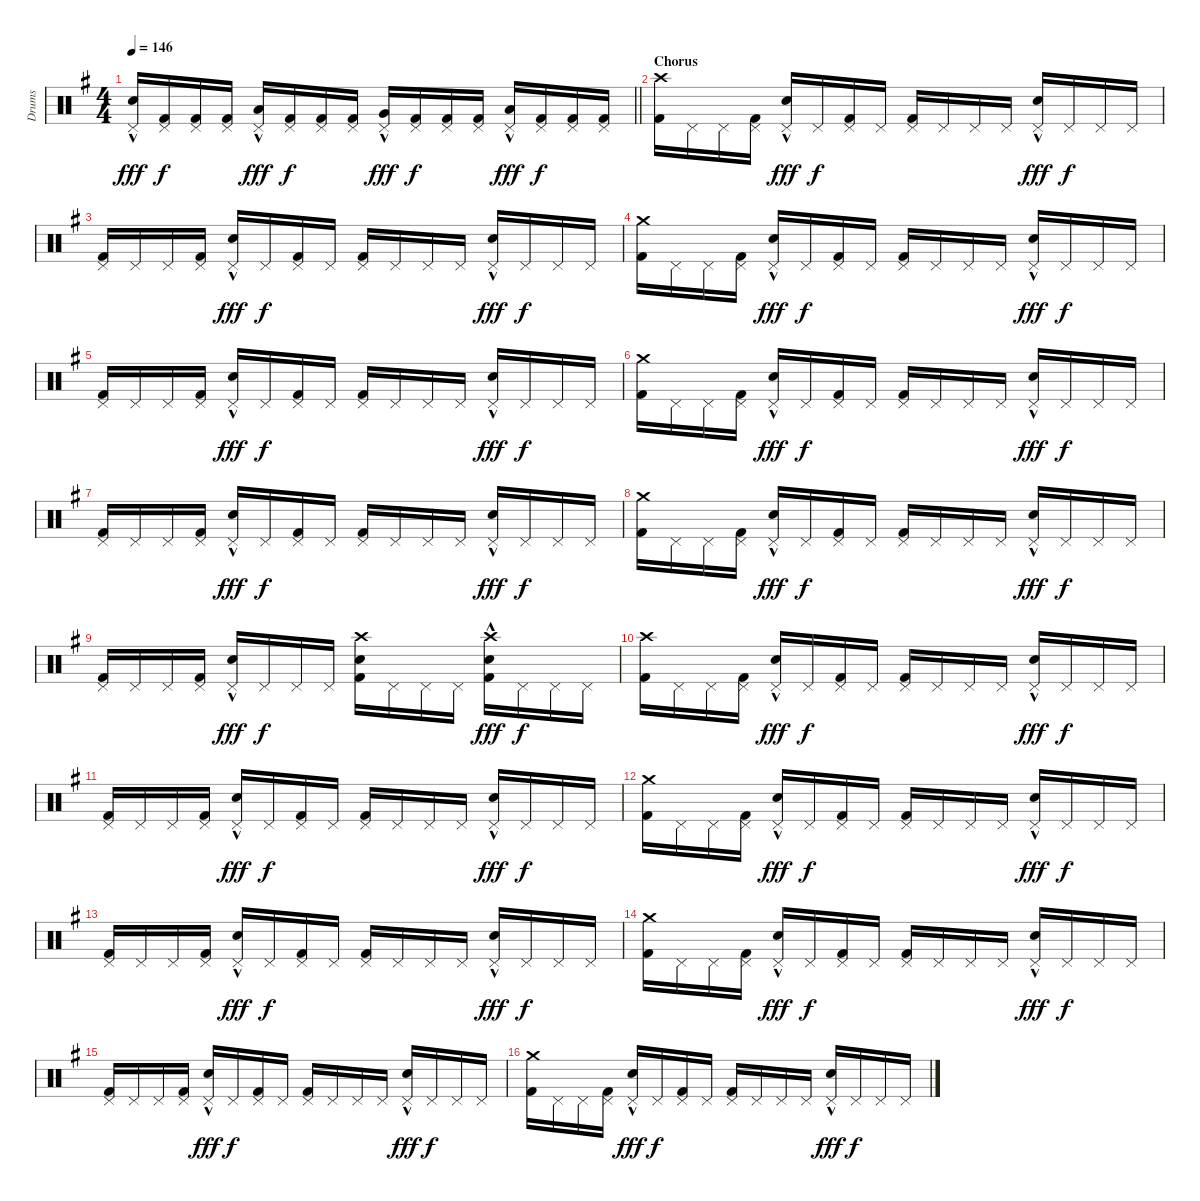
\track ("Drums" "Drums") {instrument percussion}
\staff {score}
\articulation defaults
\ts (4 4)
\tempo 146
\clef neutral
\barLineRight lightlight
\ks eminor
("Pedal Hi-Hat (hit)"{hac} "Snare (hit) 2").16{dy fff} ("Pedal Hi-Hat (hit)" "Kick (hit) 2").16{dy f} ("Pedal Hi-Hat (hit)" "Kick (hit) 2").16 ("Pedal Hi-Hat (hit)" "Kick (hit) 2").16 ("Pedal Hi-Hat (hit)"{hac} "Low Tom (hit)"{hac}).16{dy fff} ("Pedal Hi-Hat (hit)" "Kick (hit) 2").16{dy f} ("Pedal Hi-Hat (hit)" "Kick (hit) 2").16 ("Pedal Hi-Hat (hit)" "Kick (hit) 2").16 ("Pedal Hi-Hat (hit)"{hac} "Very Low Tom (hit)"{hac}).16{dy fff} ("Pedal Hi-Hat (hit)" "Kick (hit) 2").16{dy f} ("Pedal Hi-Hat (hit)" "Kick (hit) 2").16 ("Pedal Hi-Hat (hit)" "Kick (hit) 2").16 ("Pedal Hi-Hat (hit)"{hac} "Low Floor Tom (hit)"{hac}).16{dy fff} ("Pedal Hi-Hat (hit)" "Kick (hit) 2").16{dy f} ("Pedal Hi-Hat (hit)" "Kick (hit) 2").16 ("Pedal Hi-Hat (hit)" "Kick (hit) 2").16 |
\section ("" "Chorus")
("Crash high (hit)" "Kick (hit) 2").16 "Pedal Hi-Hat (hit)".16 "Pedal Hi-Hat (hit)".16 ("Pedal Hi-Hat (hit)" "Kick (hit) 2").16 ("Pedal Hi-Hat (hit)"{hac} "Snare (hit) 2").16{dy fff} "Pedal Hi-Hat (hit)".16{dy f} ("Pedal Hi-Hat (hit)" "Kick (hit) 2").16 "Pedal Hi-Hat (hit)".16 ("Pedal Hi-Hat (hit)" "Kick (hit) 2").16 "Pedal Hi-Hat (hit)".16 "Pedal Hi-Hat (hit)".16 "Pedal Hi-Hat (hit)".16 ("Pedal Hi-Hat (hit)"{hac} "Snare (hit) 2").16{dy fff} "Pedal Hi-Hat (hit)".16{dy f} "Pedal Hi-Hat (hit)".16 "Pedal Hi-Hat (hit)".16 |
("Pedal Hi-Hat (hit)" "Kick (hit) 2").16 "Pedal Hi-Hat (hit)".16 "Pedal Hi-Hat (hit)".16 ("Pedal Hi-Hat (hit)" "Kick (hit) 2").16 ("Pedal Hi-Hat (hit)"{hac} "Snare (hit) 2").16{dy fff} "Pedal Hi-Hat (hit)".16{dy f} ("Pedal Hi-Hat (hit)" "Kick (hit) 2").16 "Pedal Hi-Hat (hit)".16 ("Pedal Hi-Hat (hit)" "Kick (hit) 2").16 "Pedal Hi-Hat (hit)".16 "Pedal Hi-Hat (hit)".16 "Pedal Hi-Hat (hit)".16 ("Pedal Hi-Hat (hit)"{hac} "Snare (hit) 2").16{dy fff} "Pedal Hi-Hat (hit)".16{dy f} "Pedal Hi-Hat (hit)".16 "Pedal Hi-Hat (hit)".16 |
("Crash medium (hit)" "Kick (hit) 2").16 "Pedal Hi-Hat (hit)".16 "Pedal Hi-Hat (hit)".16 ("Pedal Hi-Hat (hit)" "Kick (hit) 2").16 ("Pedal Hi-Hat (hit)"{hac} "Snare (hit) 2").16{dy fff} "Pedal Hi-Hat (hit)".16{dy f} ("Pedal Hi-Hat (hit)" "Kick (hit) 2").16 "Pedal Hi-Hat (hit)".16 ("Pedal Hi-Hat (hit)" "Kick (hit) 2").16 "Pedal Hi-Hat (hit)".16 "Pedal Hi-Hat (hit)".16 "Pedal Hi-Hat (hit)".16 ("Pedal Hi-Hat (hit)"{hac} "Snare (hit) 2").16{dy fff} "Pedal Hi-Hat (hit)".16{dy f} "Pedal Hi-Hat (hit)".16 "Pedal Hi-Hat (hit)".16 |
("Pedal Hi-Hat (hit)" "Kick (hit) 2").16 "Pedal Hi-Hat (hit)".16 "Pedal Hi-Hat (hit)".16 ("Pedal Hi-Hat (hit)" "Kick (hit) 2").16 ("Pedal Hi-Hat (hit)"{hac} "Snare (hit) 2").16{dy fff} "Pedal Hi-Hat (hit)".16{dy f} ("Pedal Hi-Hat (hit)" "Kick (hit) 2").16 "Pedal Hi-Hat (hit)".16 ("Pedal Hi-Hat (hit)" "Kick (hit) 2").16 "Pedal Hi-Hat (hit)".16 "Pedal Hi-Hat (hit)".16 "Pedal Hi-Hat (hit)".16 ("Pedal Hi-Hat (hit)"{hac} "Snare (hit) 2").16{dy fff} "Pedal Hi-Hat (hit)".16{dy f} "Pedal Hi-Hat (hit)".16 "Pedal Hi-Hat (hit)".16 |
("Crash medium (hit)" "Kick (hit) 2").16 "Pedal Hi-Hat (hit)".16 "Pedal Hi-Hat (hit)".16 ("Pedal Hi-Hat (hit)" "Kick (hit) 2").16 ("Pedal Hi-Hat (hit)"{hac} "Snare (hit) 2").16{dy fff} "Pedal Hi-Hat (hit)".16{dy f} ("Pedal Hi-Hat (hit)" "Kick (hit) 2").16 "Pedal Hi-Hat (hit)".16 ("Pedal Hi-Hat (hit)" "Kick (hit) 2").16 "Pedal Hi-Hat (hit)".16 "Pedal Hi-Hat (hit)".16 "Pedal Hi-Hat (hit)".16 ("Pedal Hi-Hat (hit)"{hac} "Snare (hit) 2").16{dy fff} "Pedal Hi-Hat (hit)".16{dy f} "Pedal Hi-Hat (hit)".16 "Pedal Hi-Hat (hit)".16 |
("Pedal Hi-Hat (hit)" "Kick (hit) 2").16 "Pedal Hi-Hat (hit)".16 "Pedal Hi-Hat (hit)".16 ("Pedal Hi-Hat (hit)" "Kick (hit) 2").16 ("Pedal Hi-Hat (hit)"{hac} "Snare (hit) 2").16{dy fff} "Pedal Hi-Hat (hit)".16{dy f} ("Pedal Hi-Hat (hit)" "Kick (hit) 2").16 "Pedal Hi-Hat (hit)".16 ("Pedal Hi-Hat (hit)" "Kick (hit) 2").16 "Pedal Hi-Hat (hit)".16 "Pedal Hi-Hat (hit)".16 "Pedal Hi-Hat (hit)".16 ("Pedal Hi-Hat (hit)"{hac} "Snare (hit) 2").16{dy fff} "Pedal Hi-Hat (hit)".16{dy f} "Pedal Hi-Hat (hit)".16 "Pedal Hi-Hat (hit)".16 |
("Crash medium (hit)" "Kick (hit) 2").16 "Pedal Hi-Hat (hit)".16 "Pedal Hi-Hat (hit)".16 ("Pedal Hi-Hat (hit)" "Kick (hit) 2").16 ("Pedal Hi-Hat (hit)"{hac} "Snare (hit) 2").16{dy fff} "Pedal Hi-Hat (hit)".16{dy f} ("Pedal Hi-Hat (hit)" "Kick (hit) 2").16 "Pedal Hi-Hat (hit)".16 ("Pedal Hi-Hat (hit)" "Kick (hit) 2").16 "Pedal Hi-Hat (hit)".16 "Pedal Hi-Hat (hit)".16 "Pedal Hi-Hat (hit)".16 ("Pedal Hi-Hat (hit)"{hac} "Snare (hit) 2").16{dy fff} "Pedal Hi-Hat (hit)".16{dy f} "Pedal Hi-Hat (hit)".16 "Pedal Hi-Hat (hit)".16 |
("Pedal Hi-Hat (hit)" "Kick (hit) 2").16 "Pedal Hi-Hat (hit)".16 "Pedal Hi-Hat (hit)".16 ("Pedal Hi-Hat (hit)" "Kick (hit) 2").16 ("Pedal Hi-Hat (hit)"{hac} "Snare (hit) 2").16{dy fff} "Pedal Hi-Hat (hit)".16{dy f} "Pedal Hi-Hat (hit)".16 "Pedal Hi-Hat (hit)".16 ("Crash high (hit)" "Snare (hit) 2" "Kick (hit) 2").16 "Pedal Hi-Hat (hit)".16 "Pedal Hi-Hat (hit)".16 "Pedal Hi-Hat (hit)".16 ("Crash high (hit)"{hac} "Snare (hit) 2" "Kick (hit) 2").16{dy fff} "Pedal Hi-Hat (hit)".16{dy f} "Pedal Hi-Hat (hit)".16 "Pedal Hi-Hat (hit)".16 |
("Crash high (hit)" "Kick (hit) 2").16 "Pedal Hi-Hat (hit)".16 "Pedal Hi-Hat (hit)".16 ("Pedal Hi-Hat (hit)" "Kick (hit) 2").16 ("Pedal Hi-Hat (hit)"{hac} "Snare (hit) 2").16{dy fff} "Pedal Hi-Hat (hit)".16{dy f} ("Pedal Hi-Hat (hit)" "Kick (hit) 2").16 "Pedal Hi-Hat (hit)".16 ("Pedal Hi-Hat (hit)" "Kick (hit) 2").16 "Pedal Hi-Hat (hit)".16 "Pedal Hi-Hat (hit)".16 "Pedal Hi-Hat (hit)".16 ("Pedal Hi-Hat (hit)"{hac} "Snare (hit) 2").16{dy fff} "Pedal Hi-Hat (hit)".16{dy f} "Pedal Hi-Hat (hit)".16 "Pedal Hi-Hat (hit)".16 |
("Pedal Hi-Hat (hit)" "Kick (hit) 2").16 "Pedal Hi-Hat (hit)".16 "Pedal Hi-Hat (hit)".16 ("Pedal Hi-Hat (hit)" "Kick (hit) 2").16 ("Pedal Hi-Hat (hit)"{hac} "Snare (hit) 2").16{dy fff} "Pedal Hi-Hat (hit)".16{dy f} ("Pedal Hi-Hat (hit)" "Kick (hit) 2").16 "Pedal Hi-Hat (hit)".16 ("Pedal Hi-Hat (hit)" "Kick (hit) 2").16 "Pedal Hi-Hat (hit)".16 "Pedal Hi-Hat (hit)".16 "Pedal Hi-Hat (hit)".16 ("Pedal Hi-Hat (hit)"{hac} "Snare (hit) 2").16{dy fff} "Pedal Hi-Hat (hit)".16{dy f} "Pedal Hi-Hat (hit)".16 "Pedal Hi-Hat (hit)".16 |
("Crash medium (hit)" "Kick (hit) 2").16 "Pedal Hi-Hat (hit)".16 "Pedal Hi-Hat (hit)".16 ("Pedal Hi-Hat (hit)" "Kick (hit) 2").16 ("Pedal Hi-Hat (hit)"{hac} "Snare (hit) 2").16{dy fff} "Pedal Hi-Hat (hit)".16{dy f} ("Pedal Hi-Hat (hit)" "Kick (hit) 2").16 "Pedal Hi-Hat (hit)".16 ("Pedal Hi-Hat (hit)" "Kick (hit) 2").16 "Pedal Hi-Hat (hit)".16 "Pedal Hi-Hat (hit)".16 "Pedal Hi-Hat (hit)".16 ("Pedal Hi-Hat (hit)"{hac} "Snare (hit) 2").16{dy fff} "Pedal Hi-Hat (hit)".16{dy f} "Pedal Hi-Hat (hit)".16 "Pedal Hi-Hat (hit)".16 |
("Pedal Hi-Hat (hit)" "Kick (hit) 2").16 "Pedal Hi-Hat (hit)".16 "Pedal Hi-Hat (hit)".16 ("Pedal Hi-Hat (hit)" "Kick (hit) 2").16 ("Pedal Hi-Hat (hit)"{hac} "Snare (hit) 2").16{dy fff} "Pedal Hi-Hat (hit)".16{dy f} ("Pedal Hi-Hat (hit)" "Kick (hit) 2").16 "Pedal Hi-Hat (hit)".16 ("Pedal Hi-Hat (hit)" "Kick (hit) 2").16 "Pedal Hi-Hat (hit)".16 "Pedal Hi-Hat (hit)".16 "Pedal Hi-Hat (hit)".16 ("Pedal Hi-Hat (hit)"{hac} "Snare (hit) 2").16{dy fff} "Pedal Hi-Hat (hit)".16{dy f} "Pedal Hi-Hat (hit)".16 "Pedal Hi-Hat (hit)".16 |
("Crash medium (hit)" "Kick (hit) 2").16 "Pedal Hi-Hat (hit)".16 "Pedal Hi-Hat (hit)".16 ("Pedal Hi-Hat (hit)" "Kick (hit) 2").16 ("Pedal Hi-Hat (hit)"{hac} "Snare (hit) 2").16{dy fff} "Pedal Hi-Hat (hit)".16{dy f} ("Pedal Hi-Hat (hit)" "Kick (hit) 2").16 "Pedal Hi-Hat (hit)".16 ("Pedal Hi-Hat (hit)" "Kick (hit) 2").16 "Pedal Hi-Hat (hit)".16 "Pedal Hi-Hat (hit)".16 "Pedal Hi-Hat (hit)".16 ("Pedal Hi-Hat (hit)"{hac} "Snare (hit) 2").16{dy fff} "Pedal Hi-Hat (hit)".16{dy f} "Pedal Hi-Hat (hit)".16 "Pedal Hi-Hat (hit)".16 |
("Pedal Hi-Hat (hit)" "Kick (hit) 2").16 "Pedal Hi-Hat (hit)".16 "Pedal Hi-Hat (hit)".16 ("Pedal Hi-Hat (hit)" "Kick (hit) 2").16 ("Pedal Hi-Hat (hit)"{hac} "Snare (hit) 2").16{dy fff} "Pedal Hi-Hat (hit)".16{dy f} ("Pedal Hi-Hat (hit)" "Kick (hit) 2").16 "Pedal Hi-Hat (hit)".16 ("Pedal Hi-Hat (hit)" "Kick (hit) 2").16 "Pedal Hi-Hat (hit)".16 "Pedal Hi-Hat (hit)".16 "Pedal Hi-Hat (hit)".16 ("Pedal Hi-Hat (hit)"{hac} "Snare (hit) 2").16{dy fff} "Pedal Hi-Hat (hit)".16{dy f} "Pedal Hi-Hat (hit)".16 "Pedal Hi-Hat (hit)".16 |
("Crash medium (hit)" "Kick (hit) 2").16 "Pedal Hi-Hat (hit)".16 "Pedal Hi-Hat (hit)".16 ("Pedal Hi-Hat (hit)" "Kick (hit) 2").16 ("Pedal Hi-Hat (hit)"{hac} "Snare (hit) 2").16{dy fff} "Pedal Hi-Hat (hit)".16{dy f} ("Pedal Hi-Hat (hit)" "Kick (hit) 2").16 "Pedal Hi-Hat (hit)".16 ("Pedal Hi-Hat (hit)" "Kick (hit) 2").16 "Pedal Hi-Hat (hit)".16 "Pedal Hi-Hat (hit)".16 "Pedal Hi-Hat (hit)".16 ("Pedal Hi-Hat (hit)"{hac} "Snare (hit) 2").16{dy fff} "Pedal Hi-Hat (hit)".16{dy f} "Pedal Hi-Hat (hit)".16 "Pedal Hi-Hat (hit)".16
